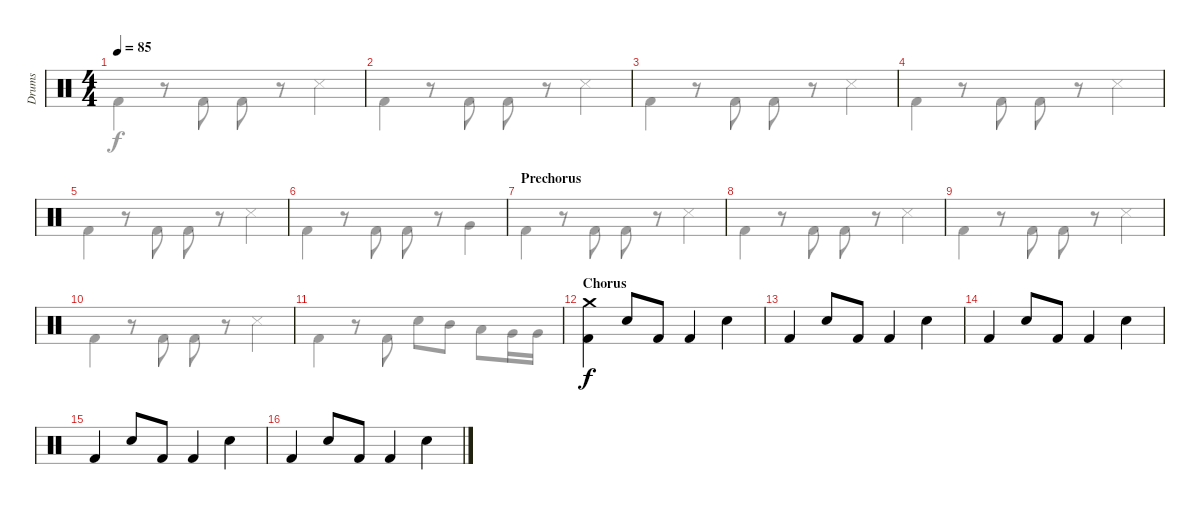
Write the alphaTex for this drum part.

\track ("Drums" "Drums") {instrument percussion}
\staff {score}
\articulation defaults
\voice
\ts (4 4)
\tempo 85
\clef neutral
\ks c
|
|
|
|
|
|
\section ("" "Prechorus")
|
|
|
|
|
\section ("" "Chorus")
("Crash medium (hit)" "Kick (hit) 2").4 "Snare (hit) 2".8 "Kick (hit) 2".8 "Kick (hit) 2".4 "Snare (hit) 2".4 |
"Kick (hit) 2".4 "Snare (hit) 2".8 "Kick (hit) 2".8 "Kick (hit) 2".4 "Snare (hit) 2".4 |
"Kick (hit) 2".4 "Snare (hit) 2".8 "Kick (hit) 2".8 "Kick (hit) 2".4 "Snare (hit) 2".4 |
"Kick (hit) 2".4 "Snare (hit) 2".8 "Kick (hit) 2".8 "Kick (hit) 2".4 "Snare (hit) 2".4 |
"Kick (hit) 2".4 "Snare (hit) 2".8 "Kick (hit) 2".8 "Kick (hit) 2".4 "Snare (hit) 2".4
\voice
\clef neutral
\ottava regular
\simile none
\ks c "Kick (hit) 2".4{dy f}
r.8 "Kick (hit) 2".8 "Kick (hit) 2".8 r.8 "Snare (side stick) 3".4 |
"Kick (hit) 2".4 r.8 "Kick (hit) 2".8 "Kick (hit) 2".8 r.8 "Snare (side stick) 3".4 |
"Kick (hit) 2".4 r.8 "Kick (hit) 2".8 "Kick (hit) 2".8 r.8 "Snare (side stick) 3".4 |
"Kick (hit) 2".4 r.8 "Kick (hit) 2".8 "Kick (hit) 2".8 r.8 "Snare (side stick) 3".4 |
"Kick (hit) 2".4 r.8 "Kick (hit) 2".8 "Kick (hit) 2".8 r.8 "Snare (side stick) 3".4 |
"Kick (hit) 2".4 r.8 "Kick (hit) 2".8 "Kick (hit) 2".8 r.8 "Very Low Tom (hit)".4 |
"Kick (hit) 2".4 r.8 "Kick (hit) 2".8 "Kick (hit) 2".8 r.8 "Snare (side stick) 3".4 |
"Kick (hit) 2".4 r.8 "Kick (hit) 2".8 "Kick (hit) 2".8 r.8 "Snare (side stick) 3".4 |
"Kick (hit) 2".4 r.8 "Kick (hit) 2".8 "Kick (hit) 2".8 r.8 "Snare (side stick) 3".4 |
"Kick (hit) 2".4 r.8 "Kick (hit) 2".8 "Kick (hit) 2".8 r.8 "Snare (side stick) 3".4 |
"Kick (hit) 2".4 r.8 "Kick (hit) 2".8 "Snare (hit) 2".8 "Mid Tom (hit)".8 "Low Tom (hit)".8 "Very Low Tom (hit)".16 "Very Low Tom (hit)".16 |
|
|
|
|
